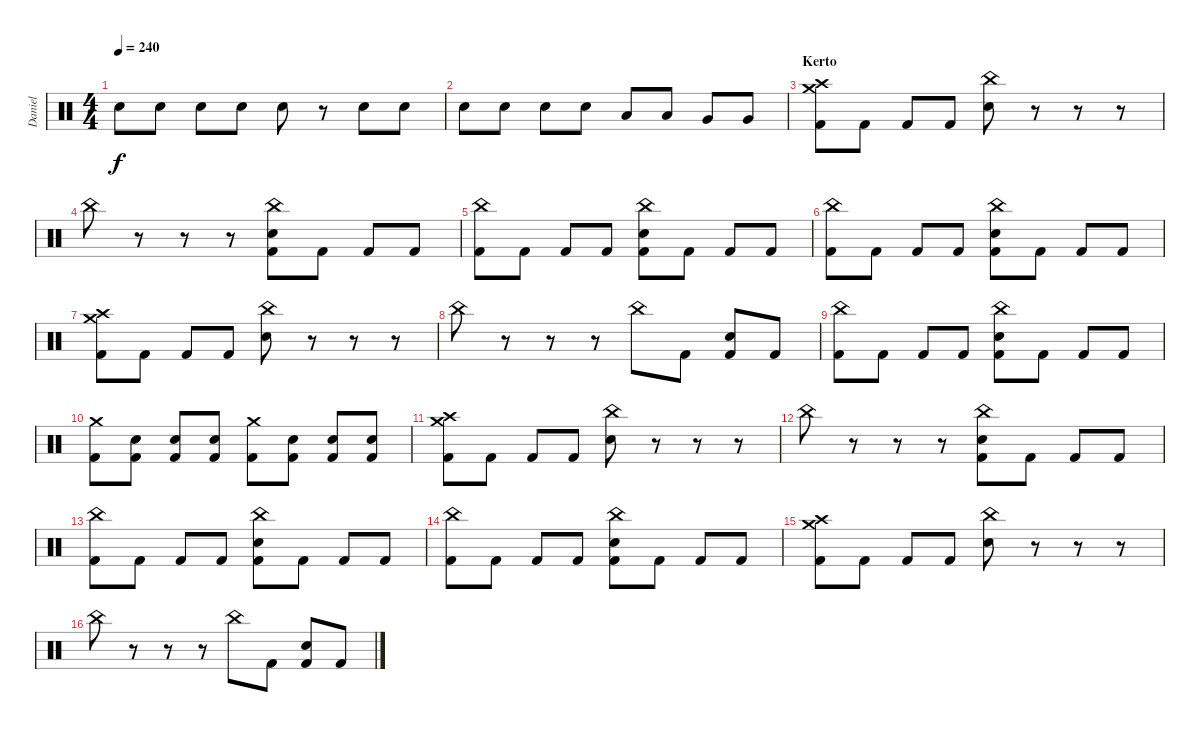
\track ("Daniel" "Daniel") {instrument percussion}
\staff {score}
\articulation defaults
\ts (4 4)
\tempo 240
\clef neutral
\ks c "Electric Snare (hit)".8{dy f} "Electric Snare (hit)".8 "Electric Snare (hit)".8 "Electric Snare (hit)".8 "Electric Snare (hit)".8
r.8 "Electric Snare (hit)".8 "Electric Snare (hit)".8 |
"Electric Snare (hit)".8 "Electric Snare (hit)".8 "Electric Snare (hit)".8 "Electric Snare (hit)".8 "Low Tom (hit)".8 "Low Tom (hit)".8 "Very Low Tom (hit)".8 "Very Low Tom (hit)".8 |
\section ("" "Kerto")
("Crash medium (hit)" "Crash high (hit)" "Kick (hit) 2").8 "Kick (hit) 2".8 "Kick (hit) 2".8 "Kick (hit) 2".8 ("China (hit)" "Electric Snare (hit)").8 r.8 r.8 r.8 |
"China (hit)".8 r.8 r.8 r.8 ("China (hit)" "Electric Snare (hit)" "Kick (hit) 2").8 "Kick (hit) 2".8 "Kick (hit) 2".8 "Kick (hit) 2".8 |
("China (hit)" "Kick (hit) 2").8 "Kick (hit) 2".8 "Kick (hit) 2".8 "Kick (hit) 2".8 ("China (hit)" "Electric Snare (hit)" "Kick (hit) 2").8 "Kick (hit) 2".8 "Kick (hit) 2".8 "Kick (hit) 2".8 |
("China (hit)" "Kick (hit) 2").8 "Kick (hit) 2".8 "Kick (hit) 2".8 "Kick (hit) 2".8 ("China (hit)" "Electric Snare (hit)" "Kick (hit) 2").8 "Kick (hit) 2".8 "Kick (hit) 2".8 "Kick (hit) 2".8 |
("Crash medium (hit)" "Crash high (hit)" "Kick (hit) 2").8 "Kick (hit) 2".8 "Kick (hit) 2".8 "Kick (hit) 2".8 ("China (hit)" "Electric Snare (hit)").8 r.8 r.8 r.8 |
"China (hit)".8 r.8 r.8 r.8 "China (hit)".8 "Kick (hit) 2".8 ("Electric Snare (hit)" "Kick (hit) 2").8 "Kick (hit) 2".8 |
("China (hit)" "Kick (hit) 2").8 "Kick (hit) 2".8 "Kick (hit) 2".8 "Kick (hit) 2".8 ("China (hit)" "Electric Snare (hit)" "Kick (hit) 2").8 "Kick (hit) 2".8 "Kick (hit) 2".8 "Kick (hit) 2".8 |
("Crash medium (hit)" "Kick (hit) 2").8 ("Electric Snare (hit)" "Kick (hit) 2").8 ("Electric Snare (hit)" "Kick (hit) 2").8 ("Electric Snare (hit)" "Kick (hit) 2").8 ("Crash medium (hit)" "Kick (hit) 2").8 ("Electric Snare (hit)" "Kick (hit) 2").8 ("Electric Snare (hit)" "Kick (hit) 2").8 ("Electric Snare (hit)" "Kick (hit) 2").8 |
("Crash medium (hit)" "Crash high (hit)" "Kick (hit) 2").8 "Kick (hit) 2".8 "Kick (hit) 2".8 "Kick (hit) 2".8 ("China (hit)" "Electric Snare (hit)").8 r.8 r.8 r.8 |
"China (hit)".8 r.8 r.8 r.8 ("China (hit)" "Electric Snare (hit)" "Kick (hit) 2").8 "Kick (hit) 2".8 "Kick (hit) 2".8 "Kick (hit) 2".8 |
("China (hit)" "Kick (hit) 2").8 "Kick (hit) 2".8 "Kick (hit) 2".8 "Kick (hit) 2".8 ("China (hit)" "Electric Snare (hit)" "Kick (hit) 2").8 "Kick (hit) 2".8 "Kick (hit) 2".8 "Kick (hit) 2".8 |
("China (hit)" "Kick (hit) 2").8 "Kick (hit) 2".8 "Kick (hit) 2".8 "Kick (hit) 2".8 ("China (hit)" "Electric Snare (hit)" "Kick (hit) 2").8 "Kick (hit) 2".8 "Kick (hit) 2".8 "Kick (hit) 2".8 |
("Crash medium (hit)" "Crash high (hit)" "Kick (hit) 2").8 "Kick (hit) 2".8 "Kick (hit) 2".8 "Kick (hit) 2".8 ("China (hit)" "Electric Snare (hit)").8 r.8 r.8 r.8 |
"China (hit)".8 r.8 r.8 r.8 "China (hit)".8 "Kick (hit) 2".8 ("Electric Snare (hit)" "Kick (hit) 2").8 "Kick (hit) 2".8
